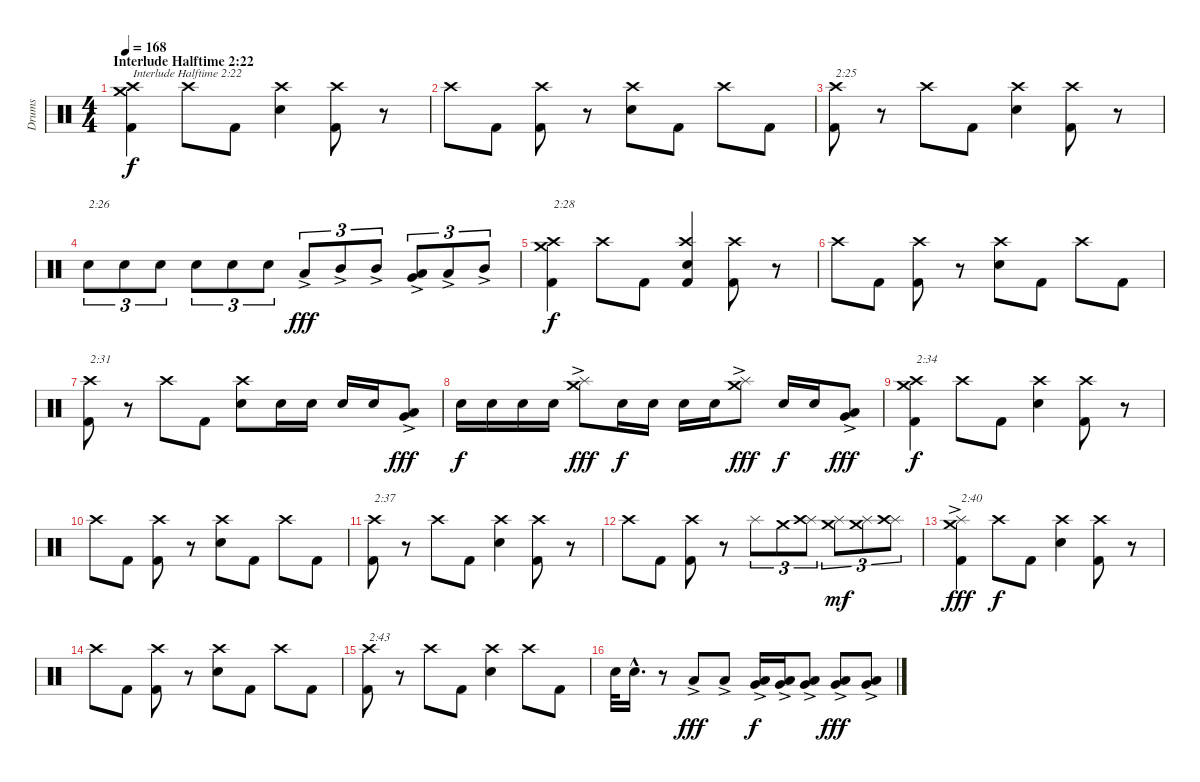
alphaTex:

\track ("Drums" "Drums") {instrument percussion}
\staff {score}
\articulation defaults
\ts (4 4)
\section ("" "Interlude Halftime 2:22")
\tempo 168
\clef neutral
\ks c
("Kick (hit) 2" "Crash medium (hit)" "Crash high (hit)").4{txt "Interlude Halftime 2:22" dy f} "Crash high (hit)".8 "Kick (hit) 2".8 ("Electric Snare (hit)" "Crash high (hit)").4 ("Kick (hit) 2" "Crash high (hit)").8 r.8 |
"Crash high (hit)".8 "Kick (hit) 2".8 ("Kick (hit) 2" "Crash high (hit)").8 r.8 ("Electric Snare (hit)" "Crash high (hit)").8 "Kick (hit) 2".8 "Crash high (hit)".8 "Kick (hit) 2".8 |
("Kick (hit) 2" "Crash high (hit)").8{txt "2:25"} r.8 "Crash high (hit)".8 "Kick (hit) 2".8 ("Electric Snare (hit)" "Crash high (hit)").4 ("Kick (hit) 2" "Crash high (hit)").8 r.8 |
"Electric Snare (hit)".8{tu (3 2) txt "2:26"} "Electric Snare (hit)".8{tu (3 2)} "Electric Snare (hit)".8{tu (3 2)} "Electric Snare (hit)".8{tu (3 2)} "Electric Snare (hit)".8{tu (3 2)} "Electric Snare (hit)".8{tu (3 2)} "Low Tom (hit)"{ac}.8{tu (3 2) dy fff} "Mid Tom (hit)"{ac}.8{tu (3 2)} "Mid Tom (hit)"{ac}.8{tu (3 2)} ("Very Low Tom (hit)"{ac} "Low Tom (hit)").8{tu (3 2)} "Low Tom (hit)"{ac}.8{tu (3 2)} "Mid Tom (hit)"{ac}.8{tu (3 2)} |
("Kick (hit) 2" "Crash medium (hit)" "Crash high (hit)").4{txt "2:28" dy f} "Crash high (hit)".8 "Kick (hit) 2".8 ("Kick (hit) 2" "Electric Snare (hit)" "Crash high (hit)").4 ("Kick (hit) 2" "Crash high (hit)").8 r.8 |
"Crash high (hit)".8 "Kick (hit) 2".8 ("Kick (hit) 2" "Crash high (hit)").8 r.8 ("Electric Snare (hit)" "Crash high (hit)").8 "Kick (hit) 2".8 "Crash high (hit)".8 "Kick (hit) 2".8 |
("Kick (hit) 2" "Crash high (hit)").8{txt "2:31"} r.8 "Crash high (hit)".8 "Kick (hit) 2".8 ("Electric Snare (hit)" "Crash high (hit)").8 "Electric Snare (hit)".16 "Electric Snare (hit)".16 "Electric Snare (hit)".16 "Electric Snare (hit)".16 ("Low Tom (hit)"{ac} "Very Low Tom (hit)"{ac}).8{dy fff} |
"Electric Snare (hit)".16{dy f} "Electric Snare (hit)".16 "Electric Snare (hit)".16 "Electric Snare (hit)".16 ("Crash medium (hit)" "Splash (hit)"{ac}).8{dy fff} "Electric Snare (hit)".16{dy f} "Electric Snare (hit)".16 "Electric Snare (hit)".16 "Electric Snare (hit)".16 ("Crash medium (hit)" "Splash (hit)"{ac}).8{dy fff} "Electric Snare (hit)".16{dy f} "Electric Snare (hit)".16 ("Low Tom (hit)"{ac} "Very Low Tom (hit)"{ac}).8{dy fff} |
("Kick (hit) 2" "Crash medium (hit)" "Crash high (hit)").4{txt "2:34" dy f} "Crash high (hit)".8 "Kick (hit) 2".8 ("Electric Snare (hit)" "Crash high (hit)").4 ("Kick (hit) 2" "Crash high (hit)").8 r.8 |
"Crash high (hit)".8 "Kick (hit) 2".8 ("Kick (hit) 2" "Crash high (hit)").8 r.8 ("Electric Snare (hit)" "Crash high (hit)").8 "Kick (hit) 2".8 "Crash high (hit)".8 "Kick (hit) 2".8 |
("Kick (hit) 2" "Crash high (hit)").8{txt "2:37"} r.8 "Crash high (hit)".8 "Kick (hit) 2".8 ("Electric Snare (hit)" "Crash high (hit)").4 ("Kick (hit) 2" "Crash high (hit)").8 r.8 |
"Crash high (hit)".8 "Kick (hit) 2".8 ("Kick (hit) 2" "Crash high (hit)").8 r.8 "Splash (hit)".8{tu (3 2)} "Crash medium (hit)".8{tu (3 2)} ("Splash (hit)" "Crash high (hit)").8{tu (3 2)} ("Splash (hit)" "Crash medium (hit)").8{tu (3 2) dy mf} ("Splash (hit)" "Crash medium (hit)").8{tu (3 2)} ("Splash (hit)" "Crash high (hit)").8{tu (3 2)} |
("Kick (hit) 2" "Crash medium (hit)" "Splash (hit)"{ac}).4{txt "2:40" dy fff} "Crash high (hit)".8{dy f} "Kick (hit) 2".8 ("Electric Snare (hit)" "Crash high (hit)").4 ("Kick (hit) 2" "Crash high (hit)").8 r.8 |
"Crash high (hit)".8 "Kick (hit) 2".8 ("Kick (hit) 2" "Crash high (hit)").8 r.8 ("Electric Snare (hit)" "Crash high (hit)").8 "Kick (hit) 2".8 "Crash high (hit)".8 "Kick (hit) 2".8 |
("Kick (hit) 2" "Crash high (hit)").8{txt "2:43"} r.8 "Crash high (hit)".8 "Kick (hit) 2".8 ("Electric Snare (hit)" "Crash high (hit)").4 "Crash high (hit)".8 "Kick (hit) 2".8 |
"Electric Snare (hit)".32 "Electric Snare (hit)"{hac}.16{d} r.8 "Low Tom (hit)"{ac}.8{dy fff} "Low Tom (hit)"{ac}.8 ("Low Tom (hit)"{ac} "Very Low Tom (hit)").16{dy f} ("Low Tom (hit)"{ac} "Very Low Tom (hit)").16 ("Low Tom (hit)"{ac} "Very Low Tom (hit)").8 ("Low Tom (hit)"{ac} "Very Low Tom (hit)").8{dy fff} ("Low Tom (hit)"{ac} "Very Low Tom (hit)").8
